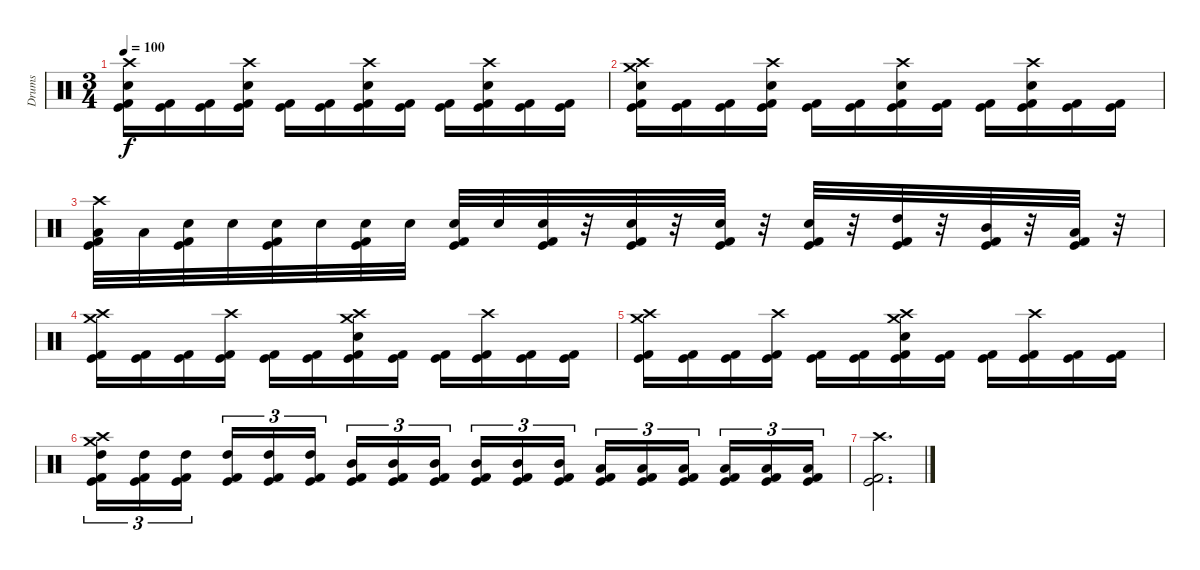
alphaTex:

\track ("Drums" "Drums") {instrument percussion}
\staff {score}
\articulation defaults
\ts (3 4)
\tempo 100
\clef neutral
\ks c
("Crash high (hit)" "Electric Snare (hit)" "Kick (hit)" "Kick (hit) 2").16{dy f} ("Kick (hit)" "Kick (hit) 2").16 ("Kick (hit)" "Kick (hit) 2").16 ("Crash high (hit)" "Electric Snare (hit)" "Kick (hit)" "Kick (hit) 2").16 ("Kick (hit)" "Kick (hit) 2").16 ("Kick (hit)" "Kick (hit) 2").16 ("Crash high (hit)" "Electric Snare (hit)" "Kick (hit)" "Kick (hit) 2").16 ("Kick (hit)" "Kick (hit) 2").16 ("Kick (hit)" "Kick (hit) 2").16 ("Crash high (hit)" "Electric Snare (hit)" "Kick (hit)" "Kick (hit) 2").16 ("Kick (hit)" "Kick (hit) 2").16 ("Kick (hit)" "Kick (hit) 2").16 |
("Crash medium (hit)" "Crash high (hit)" "Electric Snare (hit)" "Kick (hit)" "Kick (hit) 2").16 ("Kick (hit)" "Kick (hit) 2").16 ("Kick (hit)" "Kick (hit) 2").16 ("Crash high (hit)" "Electric Snare (hit)" "Kick (hit)" "Kick (hit) 2").16 ("Kick (hit)" "Kick (hit) 2").16 ("Kick (hit)" "Kick (hit) 2").16 ("Crash high (hit)" "Electric Snare (hit)" "Kick (hit)" "Kick (hit) 2").16 ("Kick (hit)" "Kick (hit) 2").16 ("Kick (hit)" "Kick (hit) 2").16 ("Crash high (hit)" "Electric Snare (hit)" "Kick (hit)" "Kick (hit) 2").16 ("Kick (hit)" "Kick (hit) 2").16 ("Kick (hit)" "Kick (hit) 2").16 |
("Crash high (hit)" "Low Tom (hit)" "Kick (hit)" "Kick (hit) 2").32 "Low Tom (hit)".32 ("Electric Snare (hit)" "Kick (hit)" "Kick (hit) 2").32 "Electric Snare (hit)".32 ("Electric Snare (hit)" "Kick (hit)" "Kick (hit) 2").32 "Electric Snare (hit)".32 ("Electric Snare (hit)" "Kick (hit)" "Kick (hit) 2").32 "Electric Snare (hit)".32 ("Electric Snare (hit)" "Kick (hit)" "Kick (hit) 2").32 "Electric Snare (hit)".32 ("Electric Snare (hit)" "Kick (hit)" "Kick (hit) 2").32 r.32 ("Electric Snare (hit)" "Kick (hit)" "Kick (hit) 2").32 r.32 ("Electric Snare (hit)" "Kick (hit)" "Kick (hit) 2").32 r.32 ("Electric Snare (hit)" "Kick (hit)" "Kick (hit) 2").32 r.32 ("High Tom (hit)" "Kick (hit)" "Kick (hit) 2").32 r.32 ("Mid Tom (hit)" "Kick (hit)" "Kick (hit) 2").32 r.32 ("Low Tom (hit)" "Kick (hit)" "Kick (hit) 2").32 r.32 |
("Crash medium (hit)" "Crash high (hit)" "Kick (hit)" "Kick (hit) 2").16 ("Kick (hit)" "Kick (hit) 2").16 ("Kick (hit)" "Kick (hit) 2").16 ("Crash high (hit)" "Kick (hit)" "Kick (hit) 2").16 ("Kick (hit)" "Kick (hit) 2").16 ("Kick (hit)" "Kick (hit) 2").16 ("Crash medium (hit)" "Crash high (hit)" "Electric Snare (hit)" "Kick (hit)" "Kick (hit) 2").16 ("Kick (hit)" "Kick (hit) 2").16 ("Kick (hit)" "Kick (hit) 2").16 ("Crash high (hit)" "Kick (hit)" "Kick (hit) 2").16 ("Kick (hit)" "Kick (hit) 2").16 ("Kick (hit)" "Kick (hit) 2").16 |
("Crash medium (hit)" "Crash high (hit)" "Kick (hit)" "Kick (hit) 2").16 ("Kick (hit)" "Kick (hit) 2").16 ("Kick (hit)" "Kick (hit) 2").16 ("Crash high (hit)" "Kick (hit)" "Kick (hit) 2").16 ("Kick (hit)" "Kick (hit) 2").16 ("Kick (hit)" "Kick (hit) 2").16 ("Crash medium (hit)" "Crash high (hit)" "Electric Snare (hit)" "Kick (hit)" "Kick (hit) 2").16 ("Kick (hit)" "Kick (hit) 2").16 ("Kick (hit)" "Kick (hit) 2").16 ("Crash high (hit)" "Kick (hit)" "Kick (hit) 2").16 ("Kick (hit)" "Kick (hit) 2").16 ("Kick (hit)" "Kick (hit) 2").16 |
("Crash medium (hit)" "Crash high (hit)" "High Tom (hit)" "Kick (hit)" "Kick (hit) 2").16{tu (3 2)} ("High Tom (hit)" "Kick (hit)" "Kick (hit) 2").16{tu (3 2)} ("High Tom (hit)" "Kick (hit)" "Kick (hit) 2").16{tu (3 2) beam splitsecondary} ("High Tom (hit)" "Kick (hit)" "Kick (hit) 2").16{tu (3 2)} ("High Tom (hit)" "Kick (hit)" "Kick (hit) 2").16{tu (3 2)} ("High Tom (hit)" "Kick (hit)" "Kick (hit) 2").16{tu (3 2)} ("Mid Tom (hit)" "Kick (hit)" "Kick (hit) 2").16{tu (3 2)} ("Mid Tom (hit)" "Kick (hit)" "Kick (hit) 2").16{tu (3 2)} ("Mid Tom (hit)" "Kick (hit)" "Kick (hit) 2").16{tu (3 2) beam splitsecondary} ("Mid Tom (hit)" "Kick (hit)" "Kick (hit) 2").16{tu (3 2)} ("Mid Tom (hit)" "Kick (hit)" "Kick (hit) 2").16{tu (3 2)} ("Mid Tom (hit)" "Kick (hit)" "Kick (hit) 2").16{tu (3 2)} ("Low Tom (hit)" "Kick (hit)" "Kick (hit) 2").16{tu (3 2)} ("Low Tom (hit)" "Kick (hit)" "Kick (hit) 2").16{tu (3 2)} ("Low Tom (hit)" "Kick (hit)" "Kick (hit) 2").16{tu (3 2) beam splitsecondary} ("Low Tom (hit)" "Kick (hit)" "Kick (hit) 2").16{tu (3 2)} ("Low Tom (hit)" "Kick (hit)" "Kick (hit) 2").16{tu (3 2)} ("Low Tom (hit)" "Kick (hit)" "Kick (hit) 2").16{tu (3 2)} |
("Crash high (hit)" "Kick (hit)" "Kick (hit) 2").2{d}
